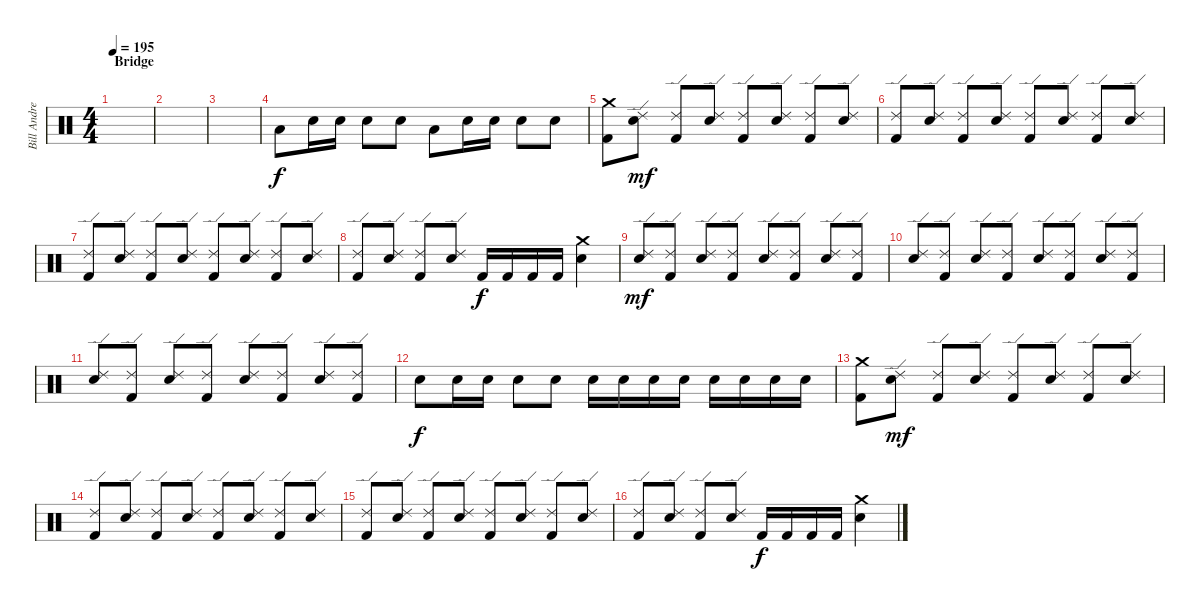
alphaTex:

\track ("Bill Andrews" "Bill Andre") {instrument percussion}
\staff {score}
\articulation defaults
\ts (4 4)
\section ("" "Bridge")
\tempo 195
\clef neutral
\ks c
|
|
|
"Low Tom (hit)".8 "Snare (hit) 2".16 "Snare (hit) 2".16 "Snare (hit) 2".8 "Snare (hit) 2".8 "Low Tom (hit)".8 "Snare (hit) 2".16 "Snare (hit) 2".16 "Snare (hit) 2".8 "Snare (hit) 2".8 |
("Kick (hit) 2" "Crash medium (hit)").8 ("Ride (edge) 2" "Snare (hit) 2").8{dy mf} ("Kick (hit) 2" "Ride (edge) 2").8 ("Ride (edge) 2" "Snare (hit) 2").8 ("Kick (hit) 2" "Ride (edge) 2").8 ("Ride (edge) 2" "Snare (hit) 2").8 ("Kick (hit) 2" "Ride (edge) 2").8 ("Ride (edge) 2" "Snare (hit) 2").8 |
("Kick (hit) 2" "Ride (edge) 2").8 ("Ride (edge) 2" "Snare (hit) 2").8 ("Kick (hit) 2" "Ride (edge) 2").8 ("Ride (edge) 2" "Snare (hit) 2").8 ("Kick (hit) 2" "Ride (edge) 2").8 ("Ride (edge) 2" "Snare (hit) 2").8 ("Kick (hit) 2" "Ride (edge) 2").8 ("Ride (edge) 2" "Snare (hit) 2").8 |
("Kick (hit) 2" "Ride (edge) 2").8 ("Ride (edge) 2" "Snare (hit) 2").8 ("Kick (hit) 2" "Ride (edge) 2").8 ("Ride (edge) 2" "Snare (hit) 2").8 ("Kick (hit) 2" "Ride (edge) 2").8 ("Ride (edge) 2" "Snare (hit) 2").8 ("Kick (hit) 2" "Ride (edge) 2").8 ("Ride (edge) 2" "Snare (hit) 2").8 |
("Kick (hit) 2" "Ride (edge) 2").8 ("Ride (edge) 2" "Snare (hit) 2").8 ("Kick (hit) 2" "Ride (edge) 2").8 ("Ride (edge) 2" "Snare (hit) 2").8 "Kick (hit) 2".16{dy f} "Kick (hit) 2".16 "Kick (hit) 2".16 "Kick (hit) 2".16 ("Crash medium (hit)" "Snare (hit) 2").4 |
("Ride (edge) 2" "Snare (hit) 2").8{dy mf} ("Kick (hit) 2" "Ride (edge) 2").8 ("Ride (edge) 2" "Snare (hit) 2").8 ("Kick (hit) 2" "Ride (edge) 2").8 ("Ride (edge) 2" "Snare (hit) 2").8 ("Kick (hit) 2" "Ride (edge) 2").8 ("Ride (edge) 2" "Snare (hit) 2").8 ("Kick (hit) 2" "Ride (edge) 2").8 |
("Ride (edge) 2" "Snare (hit) 2").8 ("Kick (hit) 2" "Ride (edge) 2").8 ("Ride (edge) 2" "Snare (hit) 2").8 ("Kick (hit) 2" "Ride (edge) 2").8 ("Ride (edge) 2" "Snare (hit) 2").8 ("Kick (hit) 2" "Ride (edge) 2").8 ("Ride (edge) 2" "Snare (hit) 2").8 ("Kick (hit) 2" "Ride (edge) 2").8 |
("Ride (edge) 2" "Snare (hit) 2").8 ("Kick (hit) 2" "Ride (edge) 2").8 ("Ride (edge) 2" "Snare (hit) 2").8 ("Kick (hit) 2" "Ride (edge) 2").8 ("Ride (edge) 2" "Snare (hit) 2").8 ("Kick (hit) 2" "Ride (edge) 2").8 ("Ride (edge) 2" "Snare (hit) 2").8 ("Kick (hit) 2" "Ride (edge) 2").8 |
"Snare (hit) 2".8{dy f} "Snare (hit) 2".16 "Snare (hit) 2".16 "Snare (hit) 2".8 "Snare (hit) 2".8 "Snare (hit) 2".16 "Snare (hit) 2".16 "Snare (hit) 2".16 "Snare (hit) 2".16 "Snare (hit) 2".16 "Snare (hit) 2".16 "Snare (hit) 2".16 "Snare (hit) 2".16 |
("Kick (hit) 2" "Crash medium (hit)").8 ("Ride (edge) 2" "Snare (hit) 2").8{dy mf} ("Kick (hit) 2" "Ride (edge) 2").8 ("Ride (edge) 2" "Snare (hit) 2").8 ("Kick (hit) 2" "Ride (edge) 2").8 ("Ride (edge) 2" "Snare (hit) 2").8 ("Kick (hit) 2" "Ride (edge) 2").8 ("Ride (edge) 2" "Snare (hit) 2").8 |
("Kick (hit) 2" "Ride (edge) 2").8 ("Ride (edge) 2" "Snare (hit) 2").8 ("Kick (hit) 2" "Ride (edge) 2").8 ("Ride (edge) 2" "Snare (hit) 2").8 ("Kick (hit) 2" "Ride (edge) 2").8 ("Ride (edge) 2" "Snare (hit) 2").8 ("Kick (hit) 2" "Ride (edge) 2").8 ("Ride (edge) 2" "Snare (hit) 2").8 |
("Kick (hit) 2" "Ride (edge) 2").8 ("Ride (edge) 2" "Snare (hit) 2").8 ("Kick (hit) 2" "Ride (edge) 2").8 ("Ride (edge) 2" "Snare (hit) 2").8 ("Kick (hit) 2" "Ride (edge) 2").8 ("Ride (edge) 2" "Snare (hit) 2").8 ("Kick (hit) 2" "Ride (edge) 2").8 ("Ride (edge) 2" "Snare (hit) 2").8 |
("Kick (hit) 2" "Ride (edge) 2").8 ("Ride (edge) 2" "Snare (hit) 2").8 ("Kick (hit) 2" "Ride (edge) 2").8 ("Ride (edge) 2" "Snare (hit) 2").8 "Kick (hit) 2".16{dy f} "Kick (hit) 2".16 "Kick (hit) 2".16 "Kick (hit) 2".16 ("Crash medium (hit)" "Snare (hit) 2").4
